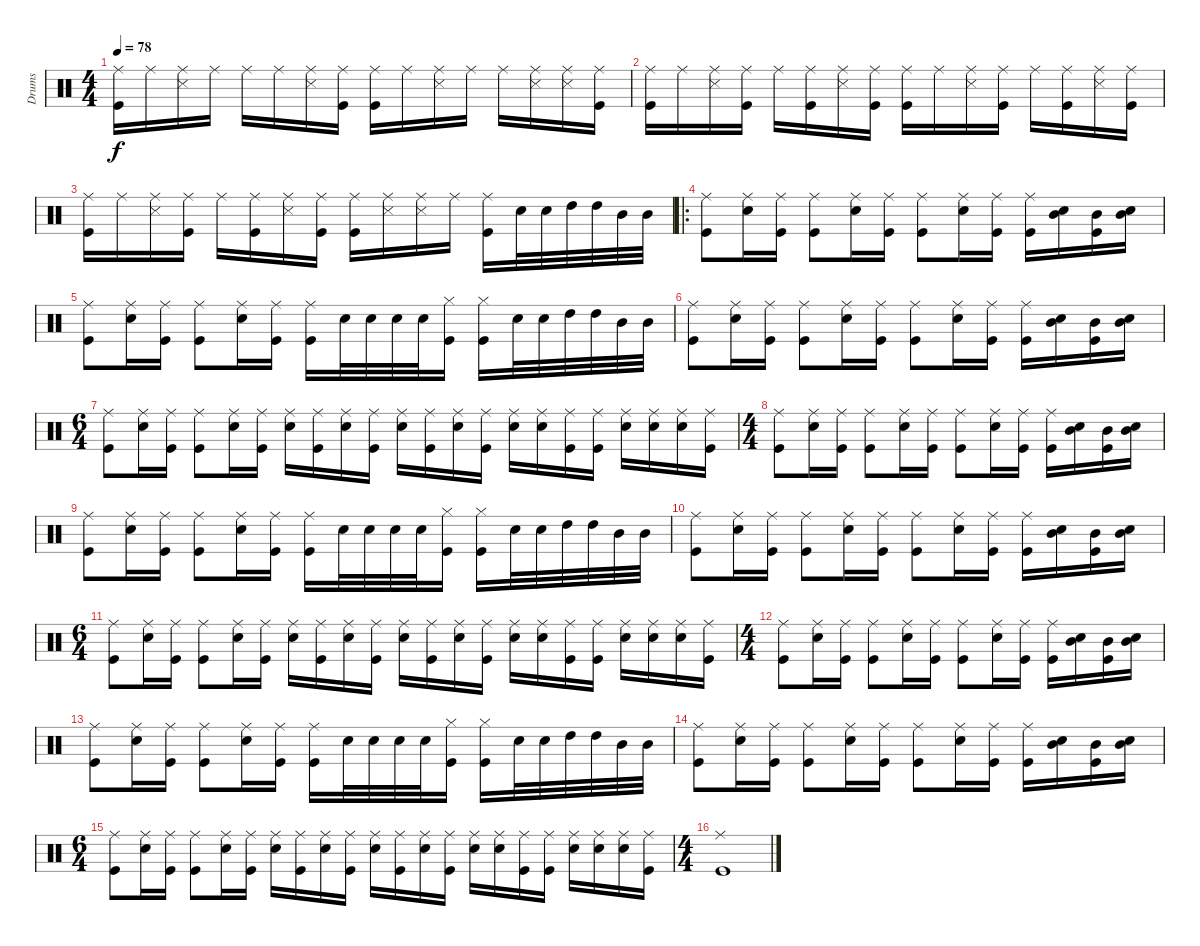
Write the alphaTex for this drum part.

\track ("Drums" "Drums") {instrument percussion}
\staff {score}
\articulation defaults
\ts (4 4)
\tempo 78
\clef neutral
\ks c
("Ride (middle)" "Kick (hit)").16{dy f} "Ride (middle)".16 ("Ride (middle)" "Snare (side stick) 3").16 "Ride (middle)".16 "Ride (middle)".16 "Ride (middle)".16 ("Ride (middle)" "Snare (side stick) 3").16 ("Ride (middle)" "Kick (hit)").16 ("Ride (middle)" "Kick (hit)").16 "Ride (middle)".16 ("Ride (middle)" "Snare (side stick) 3").16 "Ride (middle)".16 "Ride (middle)".16 ("Ride (middle)" "Snare (side stick) 3").16 ("Ride (middle)" "Snare (side stick) 3").16 ("Ride (middle)" "Kick (hit)").16 |
("Ride (middle)" "Kick (hit)").16 "Ride (middle)".16 ("Ride (middle)" "Snare (side stick) 3").16 ("Ride (middle)" "Kick (hit)").16 "Ride (middle)".16 ("Ride (middle)" "Kick (hit)").16 ("Ride (middle)" "Snare (side stick) 3").16 ("Ride (middle)" "Kick (hit)").16 ("Ride (middle)" "Kick (hit)").16 "Ride (middle)".16 ("Ride (middle)" "Snare (side stick) 3").16 ("Ride (middle)" "Kick (hit)").16 "Ride (middle)".16 ("Ride (middle)" "Kick (hit)").16 ("Ride (middle)" "Snare (side stick) 3").16 ("Ride (middle)" "Kick (hit)").16 |
("Ride (middle)" "Kick (hit)").16 "Ride (middle)".16 ("Ride (middle)" "Snare (side stick) 3").16 ("Ride (middle)" "Kick (hit)").16 "Ride (middle)".16 ("Ride (middle)" "Kick (hit)").16 ("Ride (middle)" "Snare (side stick) 3").16 ("Ride (middle)" "Kick (hit)").16 ("Ride (middle)" "Kick (hit)").16 ("Ride (middle)" "Snare (side stick) 3").16 ("Ride (middle)" "Snare (side stick) 3").16 "Ride (middle)".16 ("Ride (middle)" "Kick (hit)").16 "Snare (hit) 2".32 "Snare (hit) 2".32 "High Tom (hit)".32 "High Tom (hit)".32 "Mid Tom (hit)".32 "Mid Tom (hit)".32 |
\ro
("Ride (middle)" "Kick (hit)").8 ("Ride (middle)" "Snare (hit) 2").16 ("Ride (middle)" "Kick (hit)").16 ("Ride (middle)" "Kick (hit)").8 ("Ride (middle)" "Snare (hit) 2").16 ("Ride (middle)" "Kick (hit)").16 ("Ride (middle)" "Kick (hit)").8 ("Ride (middle)" "Snare (hit) 2").16 ("Ride (middle)" "Kick (hit)").16 ("Ride (middle)" "Kick (hit)").16 ("Snare (hit) 2" "Mid Tom (hit)").16 ("Mid Tom (hit)" "Kick (hit)").16 ("Snare (hit) 2" "Mid Tom (hit)").16 |
("Ride (middle)" "Kick (hit)").8 ("Ride (middle)" "Snare (hit) 2").16 ("Ride (middle)" "Kick (hit)").16 ("Ride (middle)" "Kick (hit)").8 ("Ride (middle)" "Snare (hit) 2").16 ("Ride (middle)" "Kick (hit)").16 ("Ride (middle)" "Kick (hit)").16 "Snare (hit) 2".32 "Snare (hit) 2".32 "Snare (hit) 2".32 "Snare (hit) 2".32 ("Hi-Hat (closed)" "Kick (hit)").16 ("Hi-Hat (closed)" "Kick (hit)").16 "Snare (hit) 2".32 "Snare (hit) 2".32 "High Tom (hit)".32 "High Tom (hit)".32 "Mid Tom (hit)".32 "Mid Tom (hit)".32 |
("Ride (middle)" "Kick (hit)").8 ("Ride (middle)" "Snare (hit) 2").16 ("Ride (middle)" "Kick (hit)").16 ("Ride (middle)" "Kick (hit)").8 ("Ride (middle)" "Snare (hit) 2").16 ("Ride (middle)" "Kick (hit)").16 ("Ride (middle)" "Kick (hit)").8 ("Ride (middle)" "Snare (hit) 2").16 ("Ride (middle)" "Kick (hit)").16 ("Ride (middle)" "Kick (hit)").16 ("Snare (hit) 2" "Mid Tom (hit)").16 ("Mid Tom (hit)" "Kick (hit)").16 ("Snare (hit) 2" "Mid Tom (hit)").16 |
\ts (6 4)
("Ride (middle)" "Kick (hit)").8 ("Ride (middle)" "Snare (hit) 2").16 ("Ride (middle)" "Kick (hit)").16 ("Ride (middle)" "Kick (hit)").8 ("Ride (middle)" "Snare (hit) 2").16 ("Ride (middle)" "Kick (hit)").16 ("Ride (middle)" "Snare (hit) 2").16 ("Ride (middle)" "Kick (hit)").16 ("Ride (middle)" "Snare (hit) 2").16 ("Ride (middle)" "Kick (hit)").16 ("Ride (middle)" "Snare (hit) 2").16 ("Ride (middle)" "Kick (hit)").16 ("Ride (middle)" "Snare (hit) 2").16 ("Ride (middle)" "Kick (hit)").16 ("Ride (middle)" "Snare (hit) 2").16 ("Ride (middle)" "Snare (hit) 2").16 ("Ride (middle)" "Kick (hit)").16 ("Ride (middle)" "Kick (hit)").16 ("Ride (middle)" "Snare (hit) 2").16 ("Ride (middle)" "Snare (hit) 2").16 ("Ride (middle)" "Snare (hit) 2").16 ("Ride (middle)" "Kick (hit)").16 |
\ts (4 4)
("Ride (middle)" "Kick (hit)").8 ("Ride (middle)" "Snare (hit) 2").16 ("Ride (middle)" "Kick (hit)").16 ("Ride (middle)" "Kick (hit)").8 ("Ride (middle)" "Snare (hit) 2").16 ("Ride (middle)" "Kick (hit)").16 ("Ride (middle)" "Kick (hit)").8 ("Ride (middle)" "Snare (hit) 2").16 ("Ride (middle)" "Kick (hit)").16 ("Ride (middle)" "Kick (hit)").16 ("Snare (hit) 2" "Mid Tom (hit)").16 ("Mid Tom (hit)" "Kick (hit)").16 ("Snare (hit) 2" "Mid Tom (hit)").16 |
("Ride (middle)" "Kick (hit)").8 ("Ride (middle)" "Snare (hit) 2").16 ("Ride (middle)" "Kick (hit)").16 ("Ride (middle)" "Kick (hit)").8 ("Ride (middle)" "Snare (hit) 2").16 ("Ride (middle)" "Kick (hit)").16 ("Ride (middle)" "Kick (hit)").16 "Snare (hit) 2".32 "Snare (hit) 2".32 "Snare (hit) 2".32 "Snare (hit) 2".32 ("Hi-Hat (closed)" "Kick (hit)").16 ("Hi-Hat (closed)" "Kick (hit)").16 "Snare (hit) 2".32 "Snare (hit) 2".32 "High Tom (hit)".32 "High Tom (hit)".32 "Mid Tom (hit)".32 "Mid Tom (hit)".32 |
("Ride (middle)" "Kick (hit)").8 ("Ride (middle)" "Snare (hit) 2").16 ("Ride (middle)" "Kick (hit)").16 ("Ride (middle)" "Kick (hit)").8 ("Ride (middle)" "Snare (hit) 2").16 ("Ride (middle)" "Kick (hit)").16 ("Ride (middle)" "Kick (hit)").8 ("Ride (middle)" "Snare (hit) 2").16 ("Ride (middle)" "Kick (hit)").16 ("Ride (middle)" "Kick (hit)").16 ("Snare (hit) 2" "Mid Tom (hit)").16 ("Mid Tom (hit)" "Kick (hit)").16 ("Snare (hit) 2" "Mid Tom (hit)").16 |
\ts (6 4)
("Ride (middle)" "Kick (hit)").8 ("Ride (middle)" "Snare (hit) 2").16 ("Ride (middle)" "Kick (hit)").16 ("Ride (middle)" "Kick (hit)").8 ("Ride (middle)" "Snare (hit) 2").16 ("Ride (middle)" "Kick (hit)").16 ("Ride (middle)" "Snare (hit) 2").16 ("Ride (middle)" "Kick (hit)").16 ("Ride (middle)" "Snare (hit) 2").16 ("Ride (middle)" "Kick (hit)").16 ("Ride (middle)" "Snare (hit) 2").16 ("Ride (middle)" "Kick (hit)").16 ("Ride (middle)" "Snare (hit) 2").16 ("Ride (middle)" "Kick (hit)").16 ("Ride (middle)" "Snare (hit) 2").16 ("Ride (middle)" "Snare (hit) 2").16 ("Ride (middle)" "Kick (hit)").16 ("Ride (middle)" "Kick (hit)").16 ("Ride (middle)" "Snare (hit) 2").16 ("Ride (middle)" "Snare (hit) 2").16 ("Ride (middle)" "Snare (hit) 2").16 ("Ride (middle)" "Kick (hit)").16 |
\ts (4 4)
("Ride (middle)" "Kick (hit)").8 ("Ride (middle)" "Snare (hit) 2").16 ("Ride (middle)" "Kick (hit)").16 ("Ride (middle)" "Kick (hit)").8 ("Ride (middle)" "Snare (hit) 2").16 ("Ride (middle)" "Kick (hit)").16 ("Ride (middle)" "Kick (hit)").8 ("Ride (middle)" "Snare (hit) 2").16 ("Ride (middle)" "Kick (hit)").16 ("Ride (middle)" "Kick (hit)").16 ("Snare (hit) 2" "Mid Tom (hit)").16 ("Mid Tom (hit)" "Kick (hit)").16 ("Snare (hit) 2" "Mid Tom (hit)").16 |
("Ride (middle)" "Kick (hit)").8 ("Ride (middle)" "Snare (hit) 2").16 ("Ride (middle)" "Kick (hit)").16 ("Ride (middle)" "Kick (hit)").8 ("Ride (middle)" "Snare (hit) 2").16 ("Ride (middle)" "Kick (hit)").16 ("Ride (middle)" "Kick (hit)").16 "Snare (hit) 2".32 "Snare (hit) 2".32 "Snare (hit) 2".32 "Snare (hit) 2".32 ("Hi-Hat (closed)" "Kick (hit)").16 ("Hi-Hat (closed)" "Kick (hit)").16 "Snare (hit) 2".32 "Snare (hit) 2".32 "High Tom (hit)".32 "High Tom (hit)".32 "Mid Tom (hit)".32 "Mid Tom (hit)".32 |
("Ride (middle)" "Kick (hit)").8 ("Ride (middle)" "Snare (hit) 2").16 ("Ride (middle)" "Kick (hit)").16 ("Ride (middle)" "Kick (hit)").8 ("Ride (middle)" "Snare (hit) 2").16 ("Ride (middle)" "Kick (hit)").16 ("Ride (middle)" "Kick (hit)").8 ("Ride (middle)" "Snare (hit) 2").16 ("Ride (middle)" "Kick (hit)").16 ("Ride (middle)" "Kick (hit)").16 ("Snare (hit) 2" "Mid Tom (hit)").16 ("Mid Tom (hit)" "Kick (hit)").16 ("Snare (hit) 2" "Mid Tom (hit)").16 |
\ts (6 4)
("Ride (middle)" "Kick (hit)").8 ("Ride (middle)" "Snare (hit) 2").16 ("Ride (middle)" "Kick (hit)").16 ("Ride (middle)" "Kick (hit)").8 ("Ride (middle)" "Snare (hit) 2").16 ("Ride (middle)" "Kick (hit)").16 ("Ride (middle)" "Snare (hit) 2").16 ("Ride (middle)" "Kick (hit)").16 ("Ride (middle)" "Snare (hit) 2").16 ("Ride (middle)" "Kick (hit)").16 ("Ride (middle)" "Snare (hit) 2").16 ("Ride (middle)" "Kick (hit)").16 ("Ride (middle)" "Snare (hit) 2").16 ("Ride (middle)" "Kick (hit)").16 ("Ride (middle)" "Snare (hit) 2").16 ("Ride (middle)" "Snare (hit) 2").16 ("Ride (middle)" "Kick (hit)").16 ("Ride (middle)" "Kick (hit)").16 ("Ride (middle)" "Snare (hit) 2").16 ("Ride (middle)" "Snare (hit) 2").16 ("Ride (middle)" "Snare (hit) 2").16 ("Ride (middle)" "Kick (hit)").16 |
\ts (4 4)
("Ride (middle)" "Kick (hit)").1
